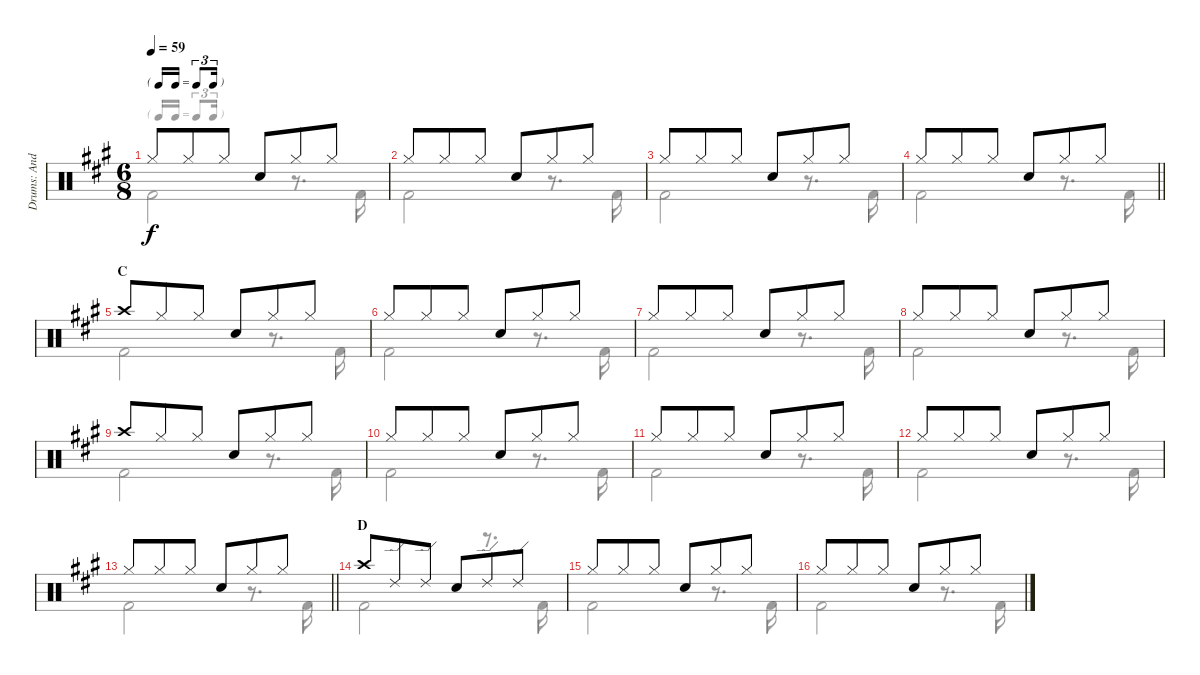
\track ("Drums: Andy Newmark" "Drums: And") {instrument percussion}
\staff {score}
\articulation defaults
\voice
\ts (6 8)
\tf triplet16th
\tempo 59
\clef neutral
\ks a "Hi-Hat (closed)".8{dy f} "Hi-Hat (closed)".8 "Hi-Hat (closed)".8 "Snare (hit) 2".8 "Hi-Hat (closed)".8 "Hi-Hat (closed)".8
|
"Hi-Hat (closed)".8 "Hi-Hat (closed)".8 "Hi-Hat (closed)".8 "Snare (hit) 2".8 "Hi-Hat (closed)".8 "Hi-Hat (closed)".8 |
"Hi-Hat (closed)".8 "Hi-Hat (closed)".8 "Hi-Hat (closed)".8 "Snare (hit) 2".8 "Hi-Hat (closed)".8 "Hi-Hat (closed)".8 |
\barLineRight lightlight "Hi-Hat (closed)".8 "Hi-Hat (closed)".8 "Hi-Hat (closed)".8 "Snare (hit) 2".8 "Hi-Hat (closed)".8 "Hi-Hat (closed)".8
|
\section ("" "C")
"Crash high (hit)".8 "Hi-Hat (closed)".8 "Hi-Hat (closed)".8 "Snare (hit) 2".8 "Hi-Hat (closed)".8 "Hi-Hat (closed)".8 |
"Hi-Hat (closed)".8 "Hi-Hat (closed)".8 "Hi-Hat (closed)".8 "Snare (hit) 2".8 "Hi-Hat (closed)".8 "Hi-Hat (closed)".8 |
"Hi-Hat (closed)".8 "Hi-Hat (closed)".8 "Hi-Hat (closed)".8 "Snare (hit) 2".8 "Hi-Hat (closed)".8 "Hi-Hat (closed)".8 |
"Hi-Hat (closed)".8 "Hi-Hat (closed)".8 "Hi-Hat (closed)".8 "Snare (hit) 2".8 "Hi-Hat (closed)".8 "Hi-Hat (closed)".8 |
"Crash high (hit)".8 "Hi-Hat (closed)".8 "Hi-Hat (closed)".8 "Snare (hit) 2".8 "Hi-Hat (closed)".8 "Hi-Hat (closed)".8 |
"Hi-Hat (closed)".8 "Hi-Hat (closed)".8 "Hi-Hat (closed)".8 "Snare (hit) 2".8 "Hi-Hat (closed)".8 "Hi-Hat (closed)".8 |
"Hi-Hat (closed)".8 "Hi-Hat (closed)".8 "Hi-Hat (closed)".8 "Snare (hit) 2".8 "Hi-Hat (closed)".8 "Hi-Hat (closed)".8 |
"Hi-Hat (closed)".8 "Hi-Hat (closed)".8 "Hi-Hat (closed)".8 "Snare (hit) 2".8 "Hi-Hat (closed)".8 "Hi-Hat (closed)".8 |
\barLineRight lightlight "Hi-Hat (closed)".8 "Hi-Hat (closed)".8 "Hi-Hat (closed)".8 "Snare (hit) 2".8 "Hi-Hat (closed)".8 "Hi-Hat (closed)".8
|
\section ("" "D")
"Crash high (hit)".8 "Ride (edge) 2".8 "Ride (edge) 2".8 "Snare (hit) 2".8 "Ride (edge) 2".8 "Ride (edge) 2".8 |
"Hi-Hat (closed)".8 "Hi-Hat (closed)".8 "Hi-Hat (closed)".8 "Snare (hit) 2".8 "Hi-Hat (closed)".8 "Hi-Hat (closed)".8 |
"Hi-Hat (closed)".8 "Hi-Hat (closed)".8 "Hi-Hat (closed)".8 "Snare (hit) 2".8 "Hi-Hat (closed)".8 "Hi-Hat (closed)".8
\voice
\clef neutral
\ottava regular
\simile none
\ks a "Kick (hit) 2".2{dy f}
r.8{d} "Kick (hit) 2".16 |
"Kick (hit) 2".2 r.8{d} "Kick (hit) 2".16 |
"Kick (hit) 2".2 r.8{d} "Kick (hit) 2".16 |
\barLineRight lightlight "Kick (hit) 2".2
r.8{d} "Kick (hit) 2".16 |
"Kick (hit) 2".2 r.8{d} "Kick (hit) 2".16 |
"Kick (hit) 2".2 r.8{d} "Kick (hit) 2".16 |
"Kick (hit) 2".2 r.8{d} "Kick (hit) 2".16 |
"Kick (hit) 2".2 r.8{d} "Kick (hit) 2".16 |
"Kick (hit) 2".2 r.8{d} "Kick (hit) 2".16 |
"Kick (hit) 2".2 r.8{d} "Kick (hit) 2".16 |
"Kick (hit) 2".2 r.8{d} "Kick (hit) 2".16 |
"Kick (hit) 2".2 r.8{d} "Kick (hit) 2".16 |
\barLineRight lightlight "Kick (hit) 2".2
r.8{d} "Kick (hit) 2".16 |
"Kick (hit) 2".2 r.8{d} "Kick (hit) 2".16 |
"Kick (hit) 2".2 r.8{d} "Kick (hit) 2".16 |
"Kick (hit) 2".2 r.8{d} "Kick (hit) 2".16
